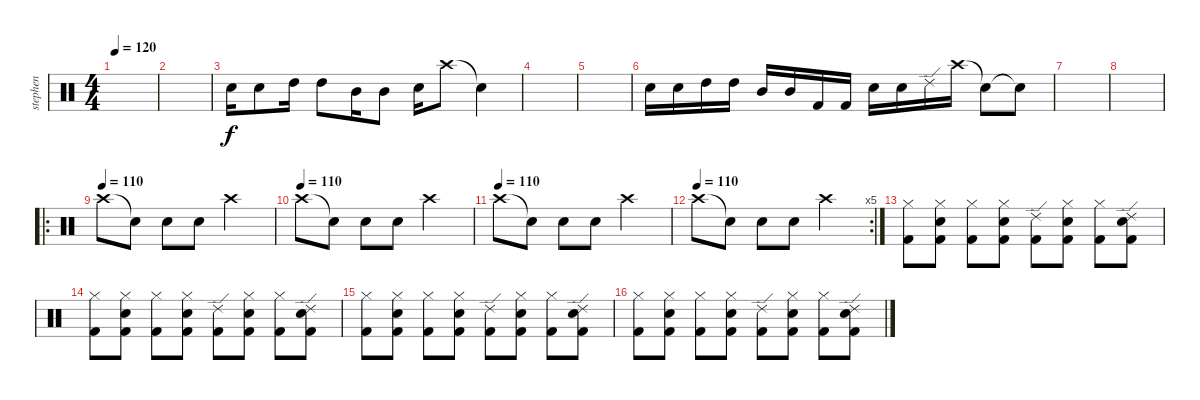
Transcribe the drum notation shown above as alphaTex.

\track ("stephen" "stephen") {instrument percussion}
\staff {score}
\articulation defaults
\ts (4 4)
\tempo 120
\clef neutral
\ks c
|
|
"Snare (hit) 2".16 "Snare (hit) 2".8 "High Tom (hit)".16 "High Tom (hit)".8 "Mid Tom (hit)".16 "Mid Tom (hit)".8 "Snare (hit) 2".16 "Crash high (hit)".8 "Snare (hit)"{t}.4 |
|
|
"Snare (hit) 2".16 "Snare (hit) 2".16 "High Tom (hit)".16 "High Tom (hit)".16 "Mid Tom (hit)".16 "Mid Tom (hit)".16 "Kick (hit) 2".16 "Kick (hit) 2".16 "Snare (hit) 2".16 "Snare (hit) 2".16 "Ride (edge) 2".16 "Crash high (hit)".16 "Snare (hit)"{t}.8 "Snare (hit)"{t}.8 |
|
|
\ro
\tempo (110)
"Crash high (hit)".8 "Snare (hit)"{t}.8 "Snare (hit) 2".8 "Snare (hit) 2".8 "Crash high (hit)".2 |
\tempo (110)
"Crash high (hit)".8 "Snare (hit)"{t}.8 "Snare (hit) 2".8 "Snare (hit) 2".8 "Crash high (hit)".2 |
\tempo (110)
"Crash high (hit)".8 "Snare (hit)"{t}.8 "Snare (hit) 2".8 "Snare (hit) 2".8 "Crash high (hit)".2 |
\rc 5
\tempo (110)
"Crash high (hit)".8 "Snare (hit)"{t}.8 "Snare (hit) 2".8 "Snare (hit) 2".8 "Crash high (hit)".2 |
("Kick (hit) 2" "Hi-Hat (closed)").8 ("Kick (hit) 2" "Snare (hit) 2" "Hi-Hat (closed)").8 ("Kick (hit) 2" "Hi-Hat (closed)").8 ("Snare (hit) 2" "Kick (hit) 2" "Hi-Hat (closed)").8 ("Kick (hit) 2" "Ride (edge) 2").8 ("Snare (hit) 2" "Kick (hit) 2" "Hi-Hat (closed)").8 ("Kick (hit) 2" "Hi-Hat (closed)").8 ("Snare (hit) 2" "Kick (hit) 2" "Ride (edge) 2").8 |
("Kick (hit) 2" "Hi-Hat (closed)").8 ("Kick (hit) 2" "Snare (hit) 2" "Hi-Hat (closed)").8 ("Kick (hit) 2" "Hi-Hat (closed)").8 ("Snare (hit) 2" "Kick (hit) 2" "Hi-Hat (closed)").8 ("Kick (hit) 2" "Ride (edge) 2").8 ("Snare (hit) 2" "Kick (hit) 2" "Hi-Hat (closed)").8 ("Kick (hit) 2" "Hi-Hat (closed)").8 ("Snare (hit) 2" "Kick (hit) 2" "Ride (edge) 2").8 |
("Kick (hit) 2" "Hi-Hat (closed)").8 ("Kick (hit) 2" "Snare (hit) 2" "Hi-Hat (closed)").8 ("Kick (hit) 2" "Hi-Hat (closed)").8 ("Snare (hit) 2" "Kick (hit) 2" "Hi-Hat (closed)").8 ("Kick (hit) 2" "Ride (edge) 2").8 ("Snare (hit) 2" "Kick (hit) 2" "Hi-Hat (closed)").8 ("Kick (hit) 2" "Hi-Hat (closed)").8 ("Snare (hit) 2" "Kick (hit) 2" "Ride (edge) 2").8 |
("Kick (hit) 2" "Hi-Hat (closed)").8 ("Kick (hit) 2" "Snare (hit) 2" "Hi-Hat (closed)").8 ("Kick (hit) 2" "Hi-Hat (closed)").8 ("Snare (hit) 2" "Kick (hit) 2" "Hi-Hat (closed)").8 ("Kick (hit) 2" "Ride (edge) 2").8 ("Snare (hit) 2" "Kick (hit) 2" "Hi-Hat (closed)").8 ("Kick (hit) 2" "Hi-Hat (closed)").8 ("Snare (hit) 2" "Kick (hit) 2" "Ride (edge) 2").8
